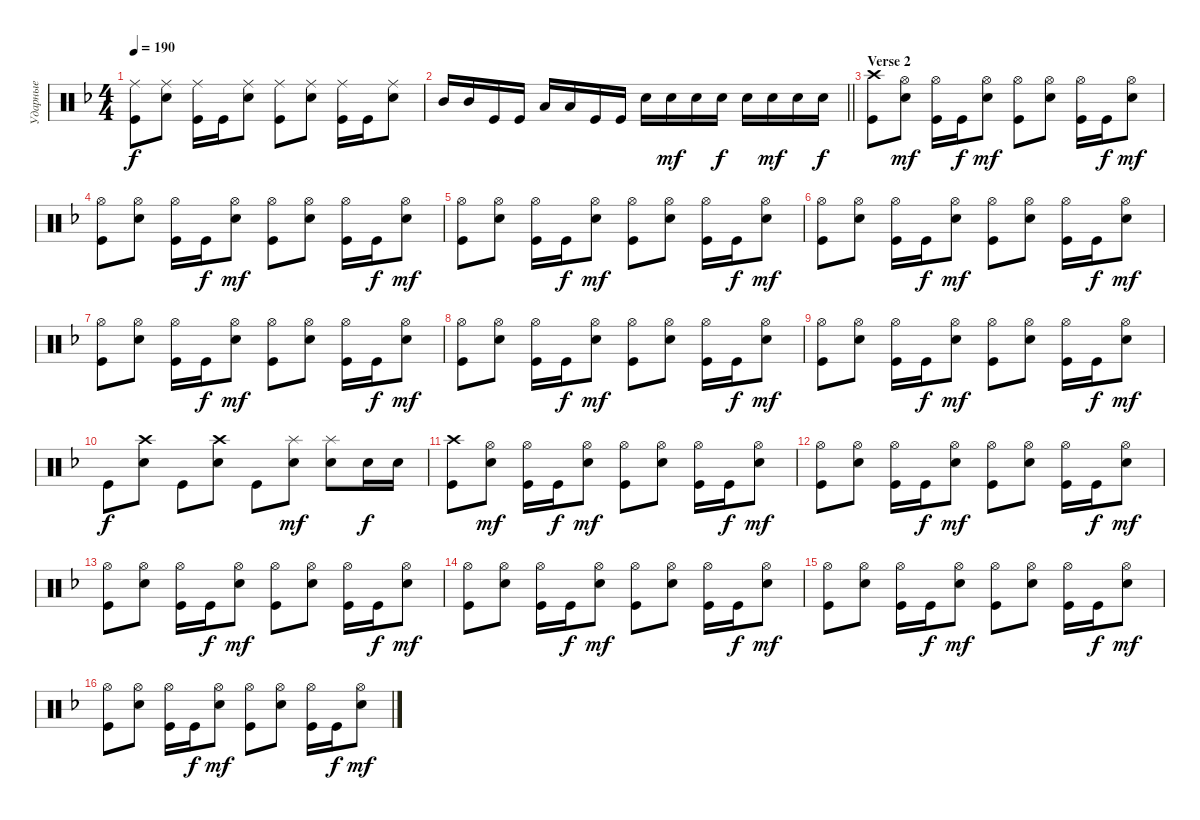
\track ("Ударные" "Ударные") {instrument percussion}
\staff {score}
\articulation defaults
\ts (4 4)
\tempo 190
\clef neutral
\ks dminor
("Kick (hit)" "Ride (middle)").8{dy f} ("Snare (hit) 2" "Ride (middle)").8 ("Kick (hit)" "Ride (middle)").16 "Kick (hit)".16 ("Snare (hit) 2" "Ride (middle)").8 ("Kick (hit)" "Ride (middle)").8 ("Snare (hit) 2" "Ride (middle)").8 ("Kick (hit)" "Ride (middle)").16 "Kick (hit)".16 ("Snare (hit) 2" "Ride (middle)").8 |
\barLineRight lightlight "Mid Tom (hit)".16 "Mid Tom (hit)".16 "Kick (hit)".16 "Kick (hit)".16 "Low Tom (hit)".16 "Low Tom (hit)".16 "Kick (hit)".16 "Kick (hit)".16 "Snare (hit) 2".16 "Snare (hit) 2".16{dy mf} "Snare (hit) 2".16 "Snare (hit) 2".16{dy f} "Snare (hit) 2".16 "Snare (hit) 2".16{dy mf} "Snare (hit) 2".16 "Snare (hit) 2".16{dy f}
|
\section ("" "Verse 2")
("Kick (hit)" "Crash high (hit)").8 ("Snare (hit) 2" "Hi-Hat (open)").8{dy mf} ("Kick (hit)" "Hi-Hat (open)").16 "Kick (hit)".16{dy f} ("Snare (hit) 2" "Hi-Hat (open)").8{dy mf} ("Kick (hit)" "Hi-Hat (open)").8 ("Snare (hit) 2" "Hi-Hat (open)").8 ("Kick (hit)" "Hi-Hat (open)").16 "Kick (hit)".16{dy f} ("Snare (hit) 2" "Hi-Hat (open)").8{dy mf} |
("Kick (hit)" "Hi-Hat (open)").8 ("Snare (hit) 2" "Hi-Hat (open)").8 ("Kick (hit)" "Hi-Hat (open)").16 "Kick (hit)".16{dy f} ("Snare (hit) 2" "Hi-Hat (open)").8{dy mf} ("Kick (hit)" "Hi-Hat (open)").8 ("Snare (hit) 2" "Hi-Hat (open)").8 ("Kick (hit)" "Hi-Hat (open)").16 "Kick (hit)".16{dy f} ("Snare (hit) 2" "Hi-Hat (open)").8{dy mf} |
("Kick (hit)" "Hi-Hat (open)").8 ("Snare (hit) 2" "Hi-Hat (open)").8 ("Kick (hit)" "Hi-Hat (open)").16 "Kick (hit)".16{dy f} ("Snare (hit) 2" "Hi-Hat (open)").8{dy mf} ("Kick (hit)" "Hi-Hat (open)").8 ("Snare (hit) 2" "Hi-Hat (open)").8 ("Kick (hit)" "Hi-Hat (open)").16 "Kick (hit)".16{dy f} ("Snare (hit) 2" "Hi-Hat (open)").8{dy mf} |
("Kick (hit)" "Hi-Hat (open)").8 ("Snare (hit) 2" "Hi-Hat (open)").8 ("Kick (hit)" "Hi-Hat (open)").16 "Kick (hit)".16{dy f} ("Snare (hit) 2" "Hi-Hat (open)").8{dy mf} ("Kick (hit)" "Hi-Hat (open)").8 ("Snare (hit) 2" "Hi-Hat (open)").8 ("Kick (hit)" "Hi-Hat (open)").16 "Kick (hit)".16{dy f} ("Snare (hit) 2" "Hi-Hat (open)").8{dy mf} |
("Kick (hit)" "Hi-Hat (open)").8 ("Snare (hit) 2" "Hi-Hat (open)").8 ("Kick (hit)" "Hi-Hat (open)").16 "Kick (hit)".16{dy f} ("Snare (hit) 2" "Hi-Hat (open)").8{dy mf} ("Kick (hit)" "Hi-Hat (open)").8 ("Snare (hit) 2" "Hi-Hat (open)").8 ("Kick (hit)" "Hi-Hat (open)").16 "Kick (hit)".16{dy f} ("Snare (hit) 2" "Hi-Hat (open)").8{dy mf} |
("Kick (hit)" "Hi-Hat (open)").8 ("Snare (hit) 2" "Hi-Hat (open)").8 ("Kick (hit)" "Hi-Hat (open)").16 "Kick (hit)".16{dy f} ("Snare (hit) 2" "Hi-Hat (open)").8{dy mf} ("Kick (hit)" "Hi-Hat (open)").8 ("Snare (hit) 2" "Hi-Hat (open)").8 ("Kick (hit)" "Hi-Hat (open)").16 "Kick (hit)".16{dy f} ("Snare (hit) 2" "Hi-Hat (open)").8{dy mf} |
("Kick (hit)" "Hi-Hat (open)").8 ("Snare (hit) 2" "Hi-Hat (open)").8 ("Kick (hit)" "Hi-Hat (open)").16 "Kick (hit)".16{dy f} ("Snare (hit) 2" "Hi-Hat (open)").8{dy mf} ("Kick (hit)" "Hi-Hat (open)").8 ("Snare (hit) 2" "Hi-Hat (open)").8 ("Kick (hit)" "Hi-Hat (open)").16 "Kick (hit)".16{dy f} ("Snare (hit) 2" "Hi-Hat (open)").8{dy mf} |
"Kick (hit)".8{dy f} ("Snare (hit) 2" "Crash high (hit)").8 "Kick (hit)".8 ("Snare (hit) 2" "Crash high (hit)").8 "Kick (hit)".8 ("Snare (hit) 2" "Splash (hit)").8{dy mf} ("Snare (hit) 2" "Splash (hit)").8 "Snare (hit) 2".16{dy f} "Snare (hit) 2".16 |
("Kick (hit)" "Crash high (hit)").8 ("Snare (hit) 2" "Hi-Hat (open)").8{dy mf} ("Kick (hit)" "Hi-Hat (open)").16 "Kick (hit)".16{dy f} ("Snare (hit) 2" "Hi-Hat (open)").8{dy mf} ("Kick (hit)" "Hi-Hat (open)").8 ("Snare (hit) 2" "Hi-Hat (open)").8 ("Kick (hit)" "Hi-Hat (open)").16 "Kick (hit)".16{dy f} ("Snare (hit) 2" "Hi-Hat (open)").8{dy mf} |
("Kick (hit)" "Hi-Hat (open)").8 ("Snare (hit) 2" "Hi-Hat (open)").8 ("Kick (hit)" "Hi-Hat (open)").16 "Kick (hit)".16{dy f} ("Snare (hit) 2" "Hi-Hat (open)").8{dy mf} ("Kick (hit)" "Hi-Hat (open)").8 ("Snare (hit) 2" "Hi-Hat (open)").8 ("Kick (hit)" "Hi-Hat (open)").16 "Kick (hit)".16{dy f} ("Snare (hit) 2" "Hi-Hat (open)").8{dy mf} |
("Kick (hit)" "Hi-Hat (open)").8 ("Snare (hit) 2" "Hi-Hat (open)").8 ("Kick (hit)" "Hi-Hat (open)").16 "Kick (hit)".16{dy f} ("Snare (hit) 2" "Hi-Hat (open)").8{dy mf} ("Kick (hit)" "Hi-Hat (open)").8 ("Snare (hit) 2" "Hi-Hat (open)").8 ("Kick (hit)" "Hi-Hat (open)").16 "Kick (hit)".16{dy f} ("Snare (hit) 2" "Hi-Hat (open)").8{dy mf} |
("Kick (hit)" "Hi-Hat (open)").8 ("Snare (hit) 2" "Hi-Hat (open)").8 ("Kick (hit)" "Hi-Hat (open)").16 "Kick (hit)".16{dy f} ("Snare (hit) 2" "Hi-Hat (open)").8{dy mf} ("Kick (hit)" "Hi-Hat (open)").8 ("Snare (hit) 2" "Hi-Hat (open)").8 ("Kick (hit)" "Hi-Hat (open)").16 "Kick (hit)".16{dy f} ("Snare (hit) 2" "Hi-Hat (open)").8{dy mf} |
("Kick (hit)" "Hi-Hat (open)").8 ("Snare (hit) 2" "Hi-Hat (open)").8 ("Kick (hit)" "Hi-Hat (open)").16 "Kick (hit)".16{dy f} ("Snare (hit) 2" "Hi-Hat (open)").8{dy mf} ("Kick (hit)" "Hi-Hat (open)").8 ("Snare (hit) 2" "Hi-Hat (open)").8 ("Kick (hit)" "Hi-Hat (open)").16 "Kick (hit)".16{dy f} ("Snare (hit) 2" "Hi-Hat (open)").8{dy mf} |
("Kick (hit)" "Hi-Hat (open)").8 ("Snare (hit) 2" "Hi-Hat (open)").8 ("Kick (hit)" "Hi-Hat (open)").16 "Kick (hit)".16{dy f} ("Snare (hit) 2" "Hi-Hat (open)").8{dy mf} ("Kick (hit)" "Hi-Hat (open)").8 ("Snare (hit) 2" "Hi-Hat (open)").8 ("Kick (hit)" "Hi-Hat (open)").16 "Kick (hit)".16{dy f} ("Snare (hit) 2" "Hi-Hat (open)").8{dy mf}
